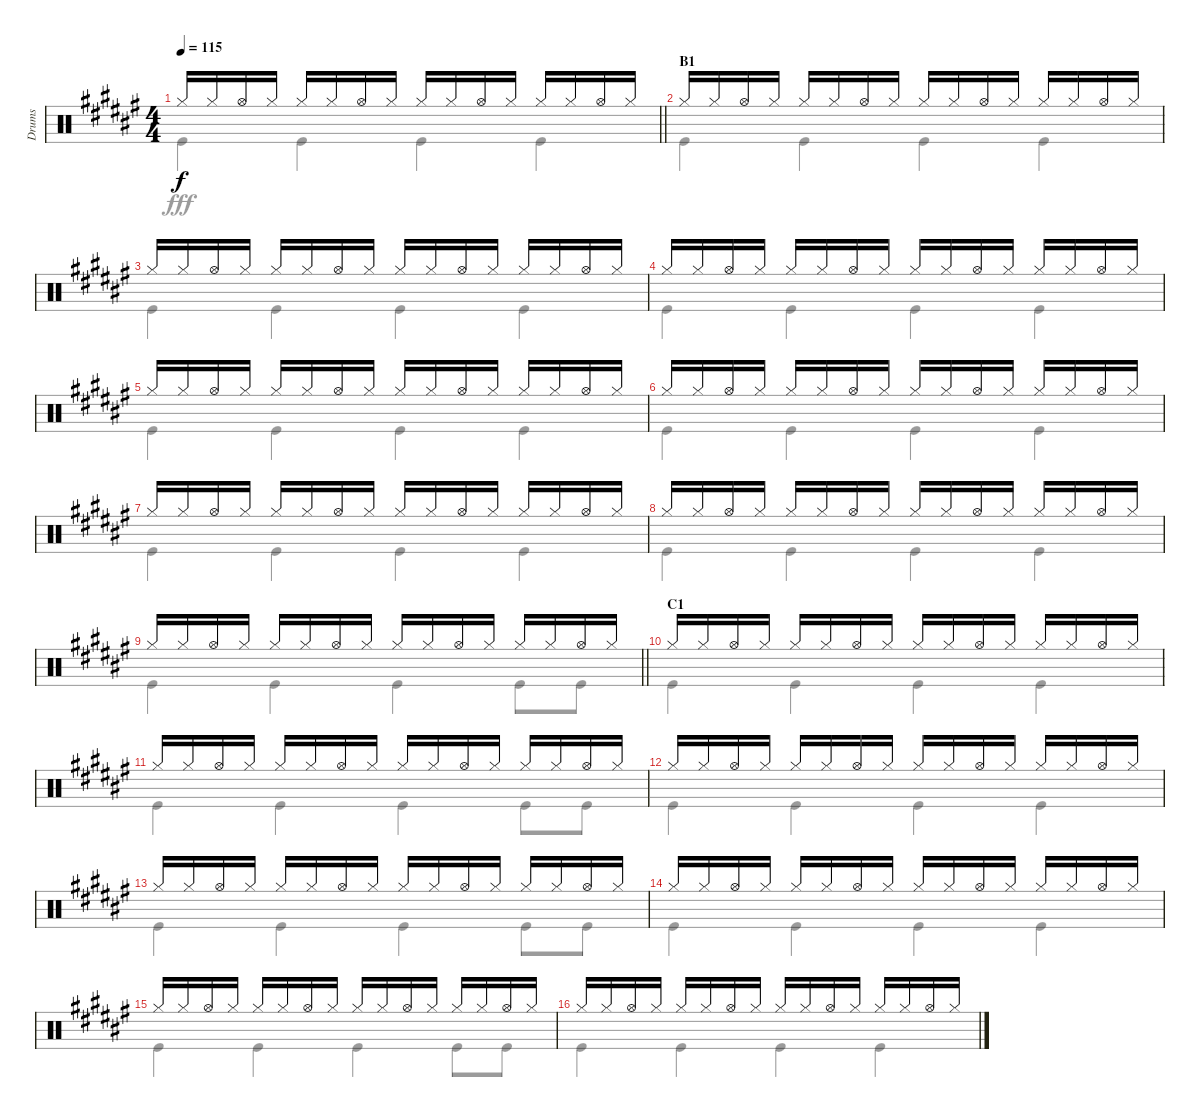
\track ("Drums" "Drums") {instrument percussion}
\staff {score}
\articulation defaults
\voice
\ts (4 4)
\tempo 115
\clef neutral
\barLineRight lightlight
\ks f# "Hi-Hat (closed)".16{dy f} "Hi-Hat (closed)".16 "Hi-Hat (open)".16 "Hi-Hat (closed)".16 "Hi-Hat (closed)".16 "Hi-Hat (closed)".16 "Hi-Hat (open)".16 "Hi-Hat (closed)".16 "Hi-Hat (closed)".16 "Hi-Hat (closed)".16 "Hi-Hat (open)".16 "Hi-Hat (closed)".16 "Hi-Hat (closed)".16 "Hi-Hat (closed)".16 "Hi-Hat (open)".16 "Hi-Hat (closed)".16
|
\section ("" "B1")
"Hi-Hat (closed)".16 "Hi-Hat (closed)".16 "Hi-Hat (open)".16 "Hi-Hat (closed)".16 "Hi-Hat (closed)".16 "Hi-Hat (closed)".16 "Hi-Hat (open)".16 "Hi-Hat (closed)".16 "Hi-Hat (closed)".16 "Hi-Hat (closed)".16 "Hi-Hat (open)".16 "Hi-Hat (closed)".16 "Hi-Hat (closed)".16 "Hi-Hat (closed)".16 "Hi-Hat (open)".16 "Hi-Hat (closed)".16 |
"Hi-Hat (closed)".16 "Hi-Hat (closed)".16 "Hi-Hat (open)".16 "Hi-Hat (closed)".16 "Hi-Hat (closed)".16 "Hi-Hat (closed)".16 "Hi-Hat (open)".16 "Hi-Hat (closed)".16 "Hi-Hat (closed)".16 "Hi-Hat (closed)".16 "Hi-Hat (open)".16 "Hi-Hat (closed)".16 "Hi-Hat (closed)".16 "Hi-Hat (closed)".16 "Hi-Hat (open)".16 "Hi-Hat (closed)".16 |
"Hi-Hat (closed)".16 "Hi-Hat (closed)".16 "Hi-Hat (open)".16 "Hi-Hat (closed)".16 "Hi-Hat (closed)".16 "Hi-Hat (closed)".16 "Hi-Hat (open)".16 "Hi-Hat (closed)".16 "Hi-Hat (closed)".16 "Hi-Hat (closed)".16 "Hi-Hat (open)".16 "Hi-Hat (closed)".16 "Hi-Hat (closed)".16 "Hi-Hat (closed)".16 "Hi-Hat (open)".16 "Hi-Hat (closed)".16 |
"Hi-Hat (closed)".16 "Hi-Hat (closed)".16 "Hi-Hat (open)".16 "Hi-Hat (closed)".16 "Hi-Hat (closed)".16 "Hi-Hat (closed)".16 "Hi-Hat (open)".16 "Hi-Hat (closed)".16 "Hi-Hat (closed)".16 "Hi-Hat (closed)".16 "Hi-Hat (open)".16 "Hi-Hat (closed)".16 "Hi-Hat (closed)".16 "Hi-Hat (closed)".16 "Hi-Hat (open)".16 "Hi-Hat (closed)".16 |
"Hi-Hat (closed)".16 "Hi-Hat (closed)".16 "Hi-Hat (open)".16 "Hi-Hat (closed)".16 "Hi-Hat (closed)".16 "Hi-Hat (closed)".16 "Hi-Hat (open)".16 "Hi-Hat (closed)".16 "Hi-Hat (closed)".16 "Hi-Hat (closed)".16 "Hi-Hat (open)".16 "Hi-Hat (closed)".16 "Hi-Hat (closed)".16 "Hi-Hat (closed)".16 "Hi-Hat (open)".16 "Hi-Hat (closed)".16 |
"Hi-Hat (closed)".16 "Hi-Hat (closed)".16 "Hi-Hat (open)".16 "Hi-Hat (closed)".16 "Hi-Hat (closed)".16 "Hi-Hat (closed)".16 "Hi-Hat (open)".16 "Hi-Hat (closed)".16 "Hi-Hat (closed)".16 "Hi-Hat (closed)".16 "Hi-Hat (open)".16 "Hi-Hat (closed)".16 "Hi-Hat (closed)".16 "Hi-Hat (closed)".16 "Hi-Hat (open)".16 "Hi-Hat (closed)".16 |
"Hi-Hat (closed)".16 "Hi-Hat (closed)".16 "Hi-Hat (open)".16 "Hi-Hat (closed)".16 "Hi-Hat (closed)".16 "Hi-Hat (closed)".16 "Hi-Hat (open)".16 "Hi-Hat (closed)".16 "Hi-Hat (closed)".16 "Hi-Hat (closed)".16 "Hi-Hat (open)".16 "Hi-Hat (closed)".16 "Hi-Hat (closed)".16 "Hi-Hat (closed)".16 "Hi-Hat (open)".16 "Hi-Hat (closed)".16 |
\barLineRight lightlight "Hi-Hat (closed)".16 "Hi-Hat (closed)".16 "Hi-Hat (open)".16 "Hi-Hat (closed)".16 "Hi-Hat (closed)".16 "Hi-Hat (closed)".16 "Hi-Hat (open)".16 "Hi-Hat (closed)".16 "Hi-Hat (closed)".16 "Hi-Hat (closed)".16 "Hi-Hat (open)".16 "Hi-Hat (closed)".16 "Hi-Hat (closed)".16 "Hi-Hat (closed)".16 "Hi-Hat (open)".16 "Hi-Hat (closed)".16
|
\section ("" "C1")
"Hi-Hat (closed)".16 "Hi-Hat (closed)".16 "Hi-Hat (open)".16 "Hi-Hat (closed)".16 "Hi-Hat (closed)".16 "Hi-Hat (closed)".16 "Hi-Hat (open)".16 "Hi-Hat (closed)".16 "Hi-Hat (closed)".16 "Hi-Hat (closed)".16 "Hi-Hat (open)".16 "Hi-Hat (closed)".16 "Hi-Hat (closed)".16 "Hi-Hat (closed)".16 "Hi-Hat (open)".16 "Hi-Hat (closed)".16 |
"Hi-Hat (closed)".16 "Hi-Hat (closed)".16 "Hi-Hat (open)".16 "Hi-Hat (closed)".16 "Hi-Hat (closed)".16 "Hi-Hat (closed)".16 "Hi-Hat (open)".16 "Hi-Hat (closed)".16 "Hi-Hat (closed)".16 "Hi-Hat (closed)".16 "Hi-Hat (open)".16 "Hi-Hat (closed)".16 "Hi-Hat (closed)".16 "Hi-Hat (closed)".16 "Hi-Hat (open)".16 "Hi-Hat (closed)".16 |
"Hi-Hat (closed)".16 "Hi-Hat (closed)".16 "Hi-Hat (open)".16 "Hi-Hat (closed)".16 "Hi-Hat (closed)".16 "Hi-Hat (closed)".16 "Hi-Hat (open)".16 "Hi-Hat (closed)".16 "Hi-Hat (closed)".16 "Hi-Hat (closed)".16 "Hi-Hat (open)".16 "Hi-Hat (closed)".16 "Hi-Hat (closed)".16 "Hi-Hat (closed)".16 "Hi-Hat (open)".16 "Hi-Hat (closed)".16 |
"Hi-Hat (closed)".16 "Hi-Hat (closed)".16 "Hi-Hat (open)".16 "Hi-Hat (closed)".16 "Hi-Hat (closed)".16 "Hi-Hat (closed)".16 "Hi-Hat (open)".16 "Hi-Hat (closed)".16 "Hi-Hat (closed)".16 "Hi-Hat (closed)".16 "Hi-Hat (open)".16 "Hi-Hat (closed)".16 "Hi-Hat (closed)".16 "Hi-Hat (closed)".16 "Hi-Hat (open)".16 "Hi-Hat (closed)".16 |
"Hi-Hat (closed)".16 "Hi-Hat (closed)".16 "Hi-Hat (open)".16 "Hi-Hat (closed)".16 "Hi-Hat (closed)".16 "Hi-Hat (closed)".16 "Hi-Hat (open)".16 "Hi-Hat (closed)".16 "Hi-Hat (closed)".16 "Hi-Hat (closed)".16 "Hi-Hat (open)".16 "Hi-Hat (closed)".16 "Hi-Hat (closed)".16 "Hi-Hat (closed)".16 "Hi-Hat (open)".16 "Hi-Hat (closed)".16 |
"Hi-Hat (closed)".16 "Hi-Hat (closed)".16 "Hi-Hat (open)".16 "Hi-Hat (closed)".16 "Hi-Hat (closed)".16 "Hi-Hat (closed)".16 "Hi-Hat (open)".16 "Hi-Hat (closed)".16 "Hi-Hat (closed)".16 "Hi-Hat (closed)".16 "Hi-Hat (open)".16 "Hi-Hat (closed)".16 "Hi-Hat (closed)".16 "Hi-Hat (closed)".16 "Hi-Hat (open)".16 "Hi-Hat (closed)".16 |
"Hi-Hat (closed)".16 "Hi-Hat (closed)".16 "Hi-Hat (open)".16 "Hi-Hat (closed)".16 "Hi-Hat (closed)".16 "Hi-Hat (closed)".16 "Hi-Hat (open)".16 "Hi-Hat (closed)".16 "Hi-Hat (closed)".16 "Hi-Hat (closed)".16 "Hi-Hat (open)".16 "Hi-Hat (closed)".16 "Hi-Hat (closed)".16 "Hi-Hat (closed)".16 "Hi-Hat (open)".16 "Hi-Hat (closed)".16
\voice
\clef neutral
\ottava regular
\simile none
\barLineRight lightlight
\ks f# "Kick (hit)".4{dy fff} "Kick (hit)".4 "Kick (hit)".4 "Kick (hit)".4
|
"Kick (hit)".4 "Kick (hit)".4 "Kick (hit)".4 "Kick (hit)".4 |
"Kick (hit)".4 "Kick (hit)".4 "Kick (hit)".4 "Kick (hit)".4 |
"Kick (hit)".4 "Kick (hit)".4 "Kick (hit)".4 "Kick (hit)".4 |
"Kick (hit)".4 "Kick (hit)".4 "Kick (hit)".4 "Kick (hit)".4 |
"Kick (hit)".4 "Kick (hit)".4 "Kick (hit)".4 "Kick (hit)".4 |
"Kick (hit)".4 "Kick (hit)".4 "Kick (hit)".4 "Kick (hit)".4 |
"Kick (hit)".4 "Kick (hit)".4 "Kick (hit)".4 "Kick (hit)".4 |
\barLineRight lightlight "Kick (hit)".4 "Kick (hit)".4 "Kick (hit)".4 "Kick (hit)".8 "Kick (hit)".8
|
"Kick (hit)".4 "Kick (hit)".4 "Kick (hit)".4 "Kick (hit)".4 |
"Kick (hit)".4 "Kick (hit)".4 "Kick (hit)".4 "Kick (hit)".8 "Kick (hit)".8 |
"Kick (hit)".4 "Kick (hit)".4 "Kick (hit)".4 "Kick (hit)".4 |
"Kick (hit)".4 "Kick (hit)".4 "Kick (hit)".4 "Kick (hit)".8 "Kick (hit)".8 |
"Kick (hit)".4 "Kick (hit)".4 "Kick (hit)".4 "Kick (hit)".4 |
"Kick (hit)".4 "Kick (hit)".4 "Kick (hit)".4 "Kick (hit)".8 "Kick (hit)".8 |
"Kick (hit)".4 "Kick (hit)".4 "Kick (hit)".4 "Kick (hit)".4
